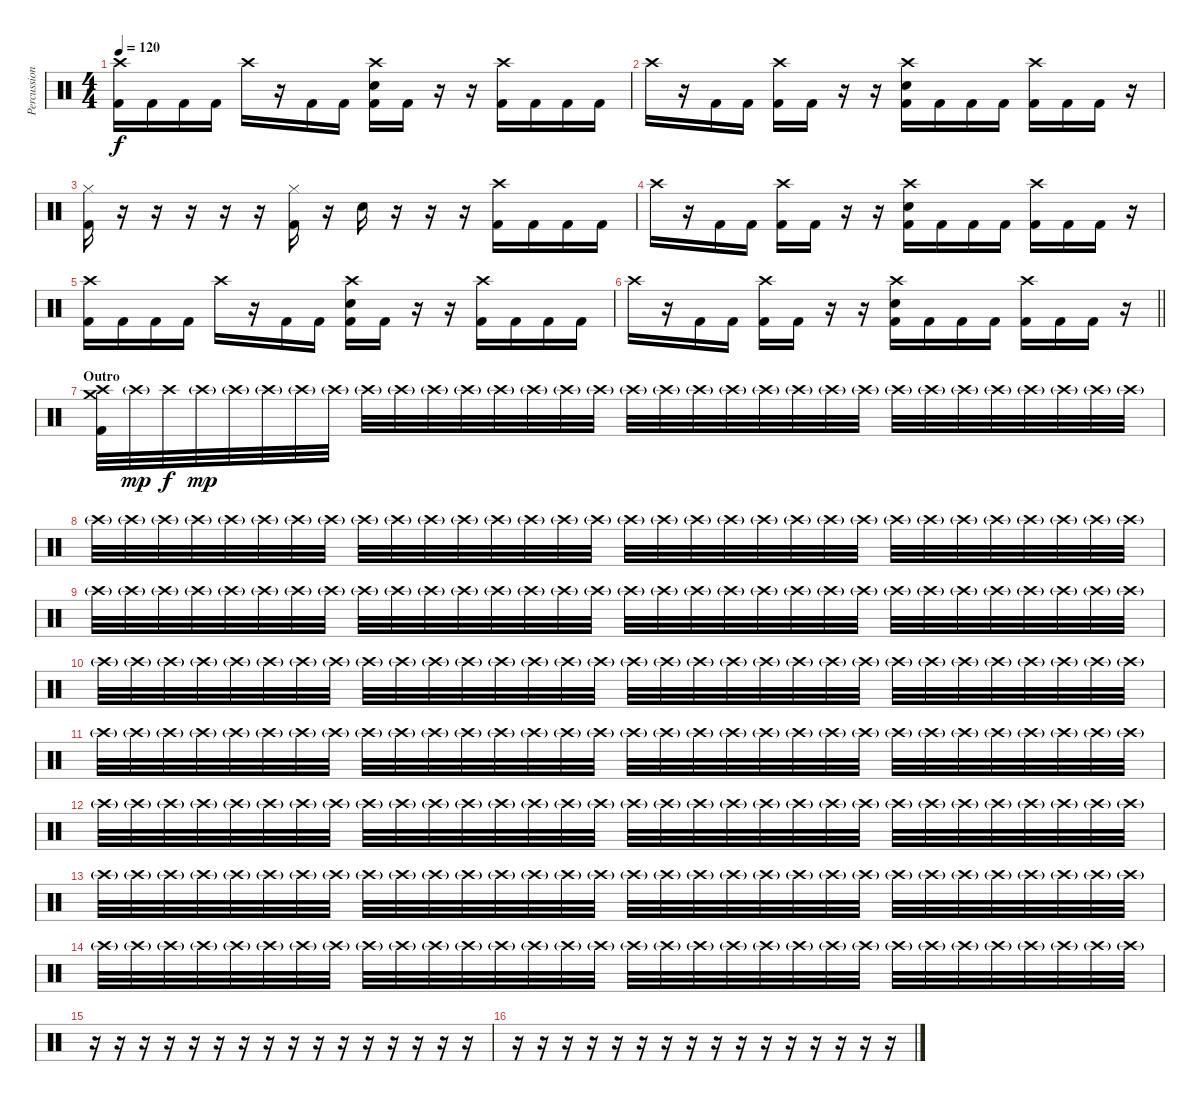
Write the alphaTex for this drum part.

\track ("Percussion" "Percussion") {instrument percussion}
\staff {score}
\articulation defaults
\ts (4 4)
\tempo 120
\clef neutral
\ks c
("Crash high (hit)" "Kick (hit) 2").16{dy f} "Kick (hit) 2".16 "Kick (hit) 2".16 "Kick (hit) 2".16 "Crash high (hit)".16 r.16 "Kick (hit) 2".16 "Kick (hit) 2".16 ("Crash high (hit)" "Electric Snare (hit)" "Kick (hit) 2").16 "Kick (hit) 2".16 r.16 r.16 ("Crash high (hit)" "Kick (hit) 2").16 "Kick (hit) 2".16 "Kick (hit) 2".16 "Kick (hit) 2".16 |
"Crash high (hit)".16 r.16 "Kick (hit) 2".16 "Kick (hit) 2".16 ("Crash high (hit)" "Kick (hit) 2").16 "Kick (hit) 2".16 r.16 r.16 ("Crash high (hit)" "Electric Snare (hit)" "Kick (hit) 2").16 "Kick (hit) 2".16 "Kick (hit) 2".16 "Kick (hit) 2".16 ("Crash high (hit)" "Kick (hit) 2").16 "Kick (hit) 2".16 "Kick (hit) 2".16 r.16 |
("Hi-Hat (closed)" "Kick (hit) 2").16 r.16 r.16 r.16 r.16 r.16 ("Hi-Hat (closed)" "Kick (hit) 2").16 r.16 "Electric Snare (hit)".16 r.16 r.16 r.16 ("Crash high (hit)" "Kick (hit) 2").16 "Kick (hit) 2".16 "Kick (hit) 2".16 "Kick (hit) 2".16 |
"Crash high (hit)".16 r.16 "Kick (hit) 2".16 "Kick (hit) 2".16 ("Crash high (hit)" "Kick (hit) 2").16 "Kick (hit) 2".16 r.16 r.16 ("Crash high (hit)" "Electric Snare (hit)" "Kick (hit) 2").16 "Kick (hit) 2".16 "Kick (hit) 2".16 "Kick (hit) 2".16 ("Crash high (hit)" "Kick (hit) 2").16 "Kick (hit) 2".16 "Kick (hit) 2".16 r.16 |
("Crash high (hit)" "Kick (hit) 2").16 "Kick (hit) 2".16 "Kick (hit) 2".16 "Kick (hit) 2".16 "Crash high (hit)".16 r.16 "Kick (hit) 2".16 "Kick (hit) 2".16 ("Crash high (hit)" "Electric Snare (hit)" "Kick (hit) 2").16 "Kick (hit) 2".16 r.16 r.16 ("Crash high (hit)" "Kick (hit) 2").16 "Kick (hit) 2".16 "Kick (hit) 2".16 "Kick (hit) 2".16 |
\barLineRight lightlight "Crash high (hit)".16
r.16 "Kick (hit) 2".16 "Kick (hit) 2".16 ("Crash high (hit)" "Kick (hit) 2").16 "Kick (hit) 2".16 r.16 r.16 ("Crash high (hit)" "Electric Snare (hit)" "Kick (hit) 2").16 "Kick (hit) 2".16 "Kick (hit) 2".16 "Kick (hit) 2".16 ("Crash high (hit)" "Kick (hit) 2").16 "Kick (hit) 2".16 "Kick (hit) 2".16 r.16 |
\section ("" "Outro")
("Crash medium (hit)" "Crash high (hit)" "Kick (hit) 2").32{volume 8} "Crash high (hit)"{g}.32{dy mp} "Crash high (hit)".32{dy f} "Crash high (hit)"{g}.32{dy mp} "Crash high (hit)"{g}.32 "Crash high (hit)"{g}.32 "Crash high (hit)"{g}.32 "Crash high (hit)"{g}.32 "Crash high (hit)"{g}.32 "Crash high (hit)"{g}.32 "Crash high (hit)"{g}.32 "Crash high (hit)"{g}.32 "Crash high (hit)"{g}.32 "Crash high (hit)"{g}.32 "Crash high (hit)"{g}.32 "Crash high (hit)"{g}.32 "Crash high (hit)"{g}.32 "Crash high (hit)"{g}.32 "Crash high (hit)"{g}.32 "Crash high (hit)"{g}.32 "Crash high (hit)"{g}.32 "Crash high (hit)"{g}.32 "Crash high (hit)"{g}.32 "Crash high (hit)"{g}.32 "Crash high (hit)"{g}.32 "Crash high (hit)"{g}.32 "Crash high (hit)"{g}.32 "Crash high (hit)"{g}.32 "Crash high (hit)"{g}.32 "Crash high (hit)"{g}.32 "Crash high (hit)"{g}.32 "Crash high (hit)"{g}.32 |
"Crash high (hit)"{g}.32 "Crash high (hit)"{g}.32 "Crash high (hit)"{g}.32 "Crash high (hit)"{g}.32 "Crash high (hit)"{g}.32 "Crash high (hit)"{g}.32 "Crash high (hit)"{g}.32 "Crash high (hit)"{g}.32 "Crash high (hit)"{g}.32 "Crash high (hit)"{g}.32 "Crash high (hit)"{g}.32 "Crash high (hit)"{g}.32 "Crash high (hit)"{g}.32 "Crash high (hit)"{g}.32 "Crash high (hit)"{g}.32 "Crash high (hit)"{g}.32 "Crash high (hit)"{g}.32 "Crash high (hit)"{g}.32 "Crash high (hit)"{g}.32 "Crash high (hit)"{g}.32 "Crash high (hit)"{g}.32 "Crash high (hit)"{g}.32 "Crash high (hit)"{g}.32 "Crash high (hit)"{g}.32 "Crash high (hit)"{g}.32 "Crash high (hit)"{g}.32 "Crash high (hit)"{g}.32 "Crash high (hit)"{g}.32 "Crash high (hit)"{g}.32 "Crash high (hit)"{g}.32 "Crash high (hit)"{g}.32 "Crash high (hit)"{g}.32 |
"Crash high (hit)"{g}.32 "Crash high (hit)"{g}.32 "Crash high (hit)"{g}.32 "Crash high (hit)"{g}.32 "Crash high (hit)"{g}.32 "Crash high (hit)"{g}.32 "Crash high (hit)"{g}.32 "Crash high (hit)"{g}.32 "Crash high (hit)"{g}.32 "Crash high (hit)"{g}.32 "Crash high (hit)"{g}.32 "Crash high (hit)"{g}.32 "Crash high (hit)"{g}.32 "Crash high (hit)"{g}.32 "Crash high (hit)"{g}.32 "Crash high (hit)"{g}.32 "Crash high (hit)"{g}.32 "Crash high (hit)"{g}.32 "Crash high (hit)"{g}.32 "Crash high (hit)"{g}.32 "Crash high (hit)"{g}.32 "Crash high (hit)"{g}.32 "Crash high (hit)"{g}.32 "Crash high (hit)"{g}.32 "Crash high (hit)"{g}.32 "Crash high (hit)"{g}.32 "Crash high (hit)"{g}.32 "Crash high (hit)"{g}.32 "Crash high (hit)"{g}.32 "Crash high (hit)"{g}.32 "Crash high (hit)"{g}.32 "Crash high (hit)"{g}.32 |
"Crash high (hit)"{g}.32 "Crash high (hit)"{g}.32 "Crash high (hit)"{g}.32 "Crash high (hit)"{g}.32 "Crash high (hit)"{g}.32 "Crash high (hit)"{g}.32 "Crash high (hit)"{g}.32 "Crash high (hit)"{g}.32 "Crash high (hit)"{g}.32 "Crash high (hit)"{g}.32 "Crash high (hit)"{g}.32 "Crash high (hit)"{g}.32 "Crash high (hit)"{g}.32 "Crash high (hit)"{g}.32 "Crash high (hit)"{g}.32 "Crash high (hit)"{g}.32 "Crash high (hit)"{g}.32 "Crash high (hit)"{g}.32 "Crash high (hit)"{g}.32 "Crash high (hit)"{g}.32 "Crash high (hit)"{g}.32 "Crash high (hit)"{g}.32 "Crash high (hit)"{g}.32 "Crash high (hit)"{g}.32 "Crash high (hit)"{g}.32 "Crash high (hit)"{g}.32 "Crash high (hit)"{g}.32 "Crash high (hit)"{g}.32 "Crash high (hit)"{g}.32 "Crash high (hit)"{g}.32 "Crash high (hit)"{g}.32 "Crash high (hit)"{g}.32 |
"Crash high (hit)"{g}.32{volume 0} "Crash high (hit)"{g}.32 "Crash high (hit)"{g}.32 "Crash high (hit)"{g}.32 "Crash high (hit)"{g}.32 "Crash high (hit)"{g}.32 "Crash high (hit)"{g}.32 "Crash high (hit)"{g}.32 "Crash high (hit)"{g}.32 "Crash high (hit)"{g}.32 "Crash high (hit)"{g}.32 "Crash high (hit)"{g}.32 "Crash high (hit)"{g}.32 "Crash high (hit)"{g}.32 "Crash high (hit)"{g}.32 "Crash high (hit)"{g}.32 "Crash high (hit)"{g}.32 "Crash high (hit)"{g}.32 "Crash high (hit)"{g}.32 "Crash high (hit)"{g}.32 "Crash high (hit)"{g}.32 "Crash high (hit)"{g}.32 "Crash high (hit)"{g}.32 "Crash high (hit)"{g}.32 "Crash high (hit)"{g}.32 "Crash high (hit)"{g}.32 "Crash high (hit)"{g}.32 "Crash high (hit)"{g}.32 "Crash high (hit)"{g}.32 "Crash high (hit)"{g}.32 "Crash high (hit)"{g}.32 "Crash high (hit)"{g}.32 |
"Crash high (hit)"{g}.32 "Crash high (hit)"{g}.32 "Crash high (hit)"{g}.32 "Crash high (hit)"{g}.32 "Crash high (hit)"{g}.32 "Crash high (hit)"{g}.32 "Crash high (hit)"{g}.32 "Crash high (hit)"{g}.32 "Crash high (hit)"{g}.32 "Crash high (hit)"{g}.32 "Crash high (hit)"{g}.32 "Crash high (hit)"{g}.32 "Crash high (hit)"{g}.32 "Crash high (hit)"{g}.32 "Crash high (hit)"{g}.32 "Crash high (hit)"{g}.32 "Crash high (hit)"{g}.32 "Crash high (hit)"{g}.32 "Crash high (hit)"{g}.32 "Crash high (hit)"{g}.32 "Crash high (hit)"{g}.32 "Crash high (hit)"{g}.32 "Crash high (hit)"{g}.32 "Crash high (hit)"{g}.32 "Crash high (hit)"{g}.32 "Crash high (hit)"{g}.32 "Crash high (hit)"{g}.32 "Crash high (hit)"{g}.32 "Crash high (hit)"{g}.32 "Crash high (hit)"{g}.32 "Crash high (hit)"{g}.32 "Crash high (hit)"{g}.32 |
"Crash high (hit)"{g}.32 "Crash high (hit)"{g}.32 "Crash high (hit)"{g}.32 "Crash high (hit)"{g}.32 "Crash high (hit)"{g}.32 "Crash high (hit)"{g}.32 "Crash high (hit)"{g}.32 "Crash high (hit)"{g}.32 "Crash high (hit)"{g}.32 "Crash high (hit)"{g}.32 "Crash high (hit)"{g}.32 "Crash high (hit)"{g}.32 "Crash high (hit)"{g}.32 "Crash high (hit)"{g}.32 "Crash high (hit)"{g}.32 "Crash high (hit)"{g}.32 "Crash high (hit)"{g}.32 "Crash high (hit)"{g}.32 "Crash high (hit)"{g}.32 "Crash high (hit)"{g}.32 "Crash high (hit)"{g}.32 "Crash high (hit)"{g}.32 "Crash high (hit)"{g}.32 "Crash high (hit)"{g}.32 "Crash high (hit)"{g}.32 "Crash high (hit)"{g}.32 "Crash high (hit)"{g}.32 "Crash high (hit)"{g}.32 "Crash high (hit)"{g}.32 "Crash high (hit)"{g}.32 "Crash high (hit)"{g}.32 "Crash high (hit)"{g}.32 |
"Crash high (hit)"{g}.32 "Crash high (hit)"{g}.32 "Crash high (hit)"{g}.32 "Crash high (hit)"{g}.32 "Crash high (hit)"{g}.32 "Crash high (hit)"{g}.32 "Crash high (hit)"{g}.32 "Crash high (hit)"{g}.32 "Crash high (hit)"{g}.32 "Crash high (hit)"{g}.32 "Crash high (hit)"{g}.32 "Crash high (hit)"{g}.32 "Crash high (hit)"{g}.32 "Crash high (hit)"{g}.32 "Crash high (hit)"{g}.32 "Crash high (hit)"{g}.32 "Crash high (hit)"{g}.32 "Crash high (hit)"{g}.32 "Crash high (hit)"{g}.32 "Crash high (hit)"{g}.32 "Crash high (hit)"{g}.32 "Crash high (hit)"{g}.32 "Crash high (hit)"{g}.32 "Crash high (hit)"{g}.32 "Crash high (hit)"{g}.32 "Crash high (hit)"{g}.32 "Crash high (hit)"{g}.32 "Crash high (hit)"{g}.32 "Crash high (hit)"{g}.32 "Crash high (hit)"{g}.32 "Crash high (hit)"{g}.32 "Crash high (hit)"{g}.32 |
r.16 r.16 r.16 r.16 r.16 r.16 r.16 r.16 r.16 r.16 r.16 r.16 r.16 r.16 r.16 r.16 |
r.16 r.16 r.16 r.16 r.16 r.16 r.16 r.16 r.16 r.16 r.16 r.16 r.16 r.16 r.16 r.16
